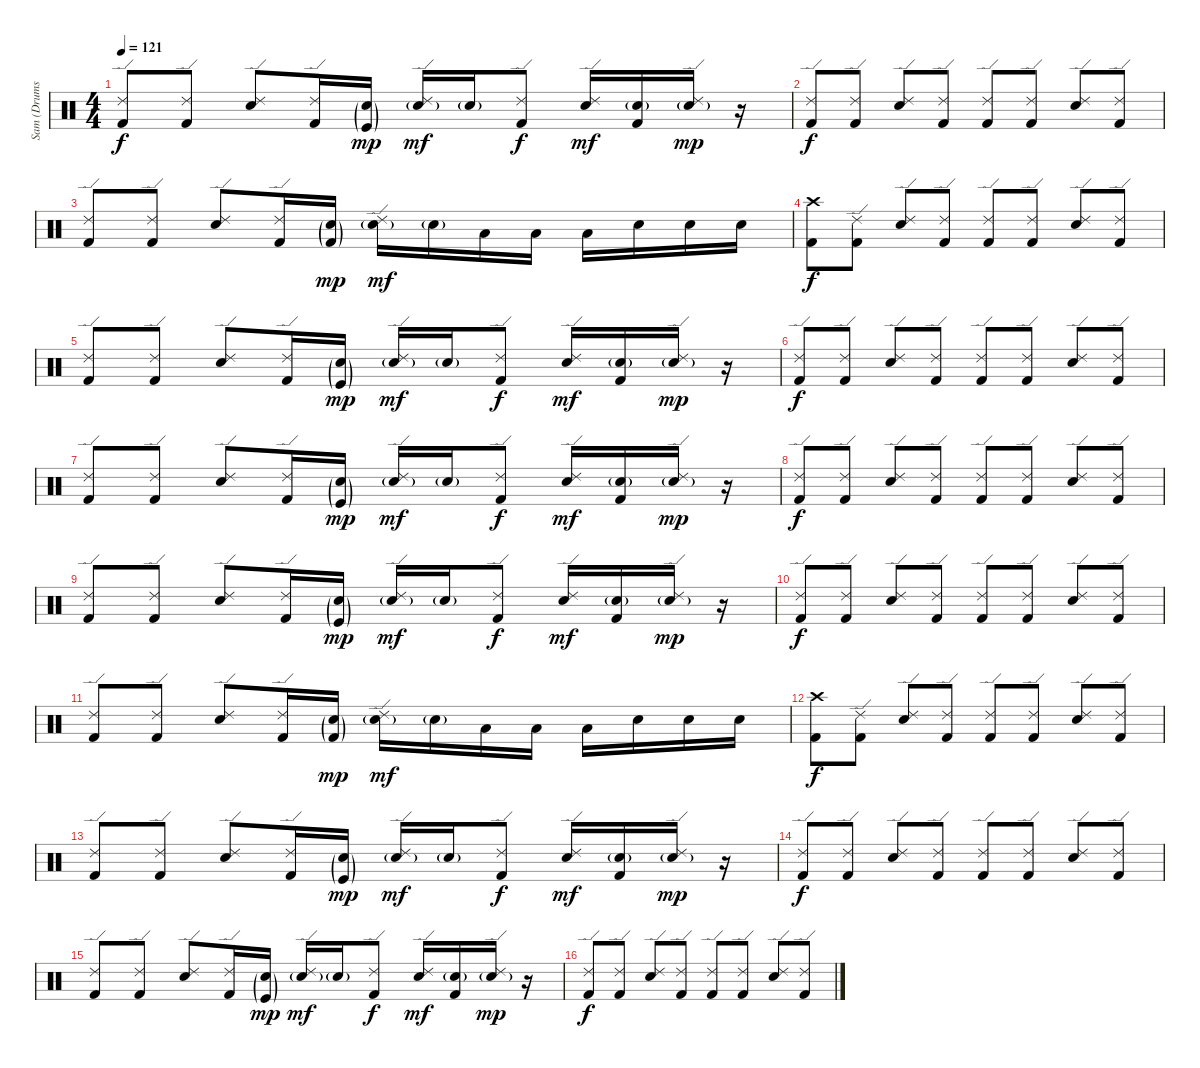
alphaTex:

\track ("Sam (Drums)" "Sam (Drums") {instrument percussion}
\staff {score}
\articulation defaults
\ts (4 4)
\tempo 121
\clef neutral
\ks c
("Ride (edge) 2" "Kick (hit) 2").8{dy f} ("Ride (edge) 2" "Kick (hit) 2").8 ("Ride (edge) 2" "Snare (hit) 2").8 ("Ride (edge) 2" "Kick (hit) 2").16 ("Snare (hit) 2"{g} "Kick (hit)"{g}).16{dy mp} ("Ride (edge) 2" "Snare (hit) 2"{g}).16{dy mf} "Snare (hit) 2"{g}.16 ("Ride (edge) 2" "Kick (hit) 2").8{dy f} ("Ride (edge) 2" "Snare (hit) 2").16{dy mf} ("Snare (hit) 2"{g} "Kick (hit) 2").16 ("Ride (edge) 2" "Snare (hit) 2"{g}).16{dy mp} r.16 |
("Ride (edge) 2" "Kick (hit) 2").8{dy f} ("Ride (edge) 2" "Kick (hit) 2").8 ("Ride (edge) 2" "Snare (hit) 2").8 ("Ride (edge) 2" "Kick (hit) 2").8 ("Ride (edge) 2" "Kick (hit) 2").8 ("Ride (edge) 2" "Kick (hit) 2").8 ("Ride (edge) 2" "Snare (hit) 2").8 ("Ride (edge) 2" "Kick (hit) 2").8 |
("Ride (edge) 2" "Kick (hit) 2").8 ("Ride (edge) 2" "Kick (hit) 2").8 ("Ride (edge) 2" "Snare (hit) 2").8 ("Ride (edge) 2" "Kick (hit) 2").16 ("Snare (hit) 2"{g} "Kick (hit) 2"{g}).16{dy mp} ("Ride (edge) 2" "Snare (hit) 2"{g}).16{dy mf} "Snare (hit) 2"{g}.16 "Low Tom (hit)".16 "Low Tom (hit)".16 "Low Tom (hit)".16 "Snare (hit) 2".16 "Snare (hit) 2".16 "Snare (hit) 2".16 |
("Crash high (hit)" "Kick (hit) 2").8{dy f} ("Ride (edge) 2" "Kick (hit) 2").8 ("Ride (edge) 2" "Snare (hit) 2").8 ("Ride (edge) 2" "Kick (hit) 2").8 ("Ride (edge) 2" "Kick (hit) 2").8 ("Ride (edge) 2" "Kick (hit) 2").8 ("Ride (edge) 2" "Snare (hit) 2").8 ("Ride (edge) 2" "Kick (hit) 2").8 |
("Ride (edge) 2" "Kick (hit) 2").8 ("Ride (edge) 2" "Kick (hit) 2").8 ("Ride (edge) 2" "Snare (hit) 2").8 ("Ride (edge) 2" "Kick (hit) 2").16 ("Snare (hit) 2"{g} "Kick (hit)"{g}).16{dy mp} ("Ride (edge) 2" "Snare (hit) 2"{g}).16{dy mf} "Snare (hit) 2"{g}.16 ("Ride (edge) 2" "Kick (hit) 2").8{dy f} ("Ride (edge) 2" "Snare (hit) 2").16{dy mf} ("Snare (hit) 2"{g} "Kick (hit) 2").16 ("Ride (edge) 2" "Snare (hit) 2"{g}).16{dy mp} r.16 |
("Ride (edge) 2" "Kick (hit) 2").8{dy f} ("Ride (edge) 2" "Kick (hit) 2").8 ("Ride (edge) 2" "Snare (hit) 2").8 ("Ride (edge) 2" "Kick (hit) 2").8 ("Ride (edge) 2" "Kick (hit) 2").8 ("Ride (edge) 2" "Kick (hit) 2").8 ("Ride (edge) 2" "Snare (hit) 2").8 ("Ride (edge) 2" "Kick (hit) 2").8 |
("Ride (edge) 2" "Kick (hit) 2").8 ("Ride (edge) 2" "Kick (hit) 2").8 ("Ride (edge) 2" "Snare (hit) 2").8 ("Ride (edge) 2" "Kick (hit) 2").16 ("Snare (hit) 2"{g} "Kick (hit)"{g}).16{dy mp} ("Ride (edge) 2" "Snare (hit) 2"{g}).16{dy mf} "Snare (hit) 2"{g}.16 ("Ride (edge) 2" "Kick (hit) 2").8{dy f} ("Ride (edge) 2" "Snare (hit) 2").16{dy mf} ("Snare (hit) 2"{g} "Kick (hit) 2").16 ("Ride (edge) 2" "Snare (hit) 2"{g}).16{dy mp} r.16 |
("Ride (edge) 2" "Kick (hit) 2").8{dy f} ("Ride (edge) 2" "Kick (hit) 2").8 ("Ride (edge) 2" "Snare (hit) 2").8 ("Ride (edge) 2" "Kick (hit) 2").8 ("Ride (edge) 2" "Kick (hit) 2").8 ("Ride (edge) 2" "Kick (hit) 2").8 ("Ride (edge) 2" "Snare (hit) 2").8 ("Ride (edge) 2" "Kick (hit) 2").8 |
("Ride (edge) 2" "Kick (hit) 2").8 ("Ride (edge) 2" "Kick (hit) 2").8 ("Ride (edge) 2" "Snare (hit) 2").8 ("Ride (edge) 2" "Kick (hit) 2").16 ("Snare (hit) 2"{g} "Kick (hit)"{g}).16{dy mp} ("Ride (edge) 2" "Snare (hit) 2"{g}).16{dy mf} "Snare (hit) 2"{g}.16 ("Ride (edge) 2" "Kick (hit) 2").8{dy f} ("Ride (edge) 2" "Snare (hit) 2").16{dy mf} ("Snare (hit) 2"{g} "Kick (hit) 2").16 ("Ride (edge) 2" "Snare (hit) 2"{g}).16{dy mp} r.16 |
("Ride (edge) 2" "Kick (hit) 2").8{dy f} ("Ride (edge) 2" "Kick (hit) 2").8 ("Ride (edge) 2" "Snare (hit) 2").8 ("Ride (edge) 2" "Kick (hit) 2").8 ("Ride (edge) 2" "Kick (hit) 2").8 ("Ride (edge) 2" "Kick (hit) 2").8 ("Ride (edge) 2" "Snare (hit) 2").8 ("Ride (edge) 2" "Kick (hit) 2").8 |
("Ride (edge) 2" "Kick (hit) 2").8 ("Ride (edge) 2" "Kick (hit) 2").8 ("Ride (edge) 2" "Snare (hit) 2").8 ("Ride (edge) 2" "Kick (hit) 2").16 ("Snare (hit) 2"{g} "Kick (hit) 2"{g}).16{dy mp} ("Ride (edge) 2" "Snare (hit) 2"{g}).16{dy mf} "Snare (hit) 2"{g}.16 "Low Tom (hit)".16 "Low Tom (hit)".16 "Low Tom (hit)".16 "Snare (hit) 2".16 "Snare (hit) 2".16 "Snare (hit) 2".16 |
("Crash high (hit)" "Kick (hit) 2").8{dy f} ("Ride (edge) 2" "Kick (hit) 2").8 ("Ride (edge) 2" "Snare (hit) 2").8 ("Ride (edge) 2" "Kick (hit) 2").8 ("Ride (edge) 2" "Kick (hit) 2").8 ("Ride (edge) 2" "Kick (hit) 2").8 ("Ride (edge) 2" "Snare (hit) 2").8 ("Ride (edge) 2" "Kick (hit) 2").8 |
("Ride (edge) 2" "Kick (hit) 2").8 ("Ride (edge) 2" "Kick (hit) 2").8 ("Ride (edge) 2" "Snare (hit) 2").8 ("Ride (edge) 2" "Kick (hit) 2").16 ("Snare (hit) 2"{g} "Kick (hit)"{g}).16{dy mp} ("Ride (edge) 2" "Snare (hit) 2"{g}).16{dy mf} "Snare (hit) 2"{g}.16 ("Ride (edge) 2" "Kick (hit) 2").8{dy f} ("Ride (edge) 2" "Snare (hit) 2").16{dy mf} ("Snare (hit) 2"{g} "Kick (hit) 2").16 ("Ride (edge) 2" "Snare (hit) 2"{g}).16{dy mp} r.16 |
("Ride (edge) 2" "Kick (hit) 2").8{dy f} ("Ride (edge) 2" "Kick (hit) 2").8 ("Ride (edge) 2" "Snare (hit) 2").8 ("Ride (edge) 2" "Kick (hit) 2").8 ("Ride (edge) 2" "Kick (hit) 2").8 ("Ride (edge) 2" "Kick (hit) 2").8 ("Ride (edge) 2" "Snare (hit) 2").8 ("Ride (edge) 2" "Kick (hit) 2").8 |
("Ride (edge) 2" "Kick (hit) 2").8 ("Ride (edge) 2" "Kick (hit) 2").8 ("Ride (edge) 2" "Snare (hit) 2").8 ("Ride (edge) 2" "Kick (hit) 2").16 ("Snare (hit) 2"{g} "Kick (hit)"{g}).16{dy mp} ("Ride (edge) 2" "Snare (hit) 2"{g}).16{dy mf} "Snare (hit) 2"{g}.16 ("Ride (edge) 2" "Kick (hit) 2").8{dy f} ("Ride (edge) 2" "Snare (hit) 2").16{dy mf} ("Snare (hit) 2"{g} "Kick (hit) 2").16 ("Ride (edge) 2" "Snare (hit) 2"{g}).16{dy mp} r.16 |
("Ride (edge) 2" "Kick (hit) 2").8{dy f} ("Ride (edge) 2" "Kick (hit) 2").8 ("Ride (edge) 2" "Snare (hit) 2").8 ("Ride (edge) 2" "Kick (hit) 2").8 ("Ride (edge) 2" "Kick (hit) 2").8 ("Ride (edge) 2" "Kick (hit) 2").8 ("Ride (edge) 2" "Snare (hit) 2").8 ("Ride (edge) 2" "Kick (hit) 2").8
